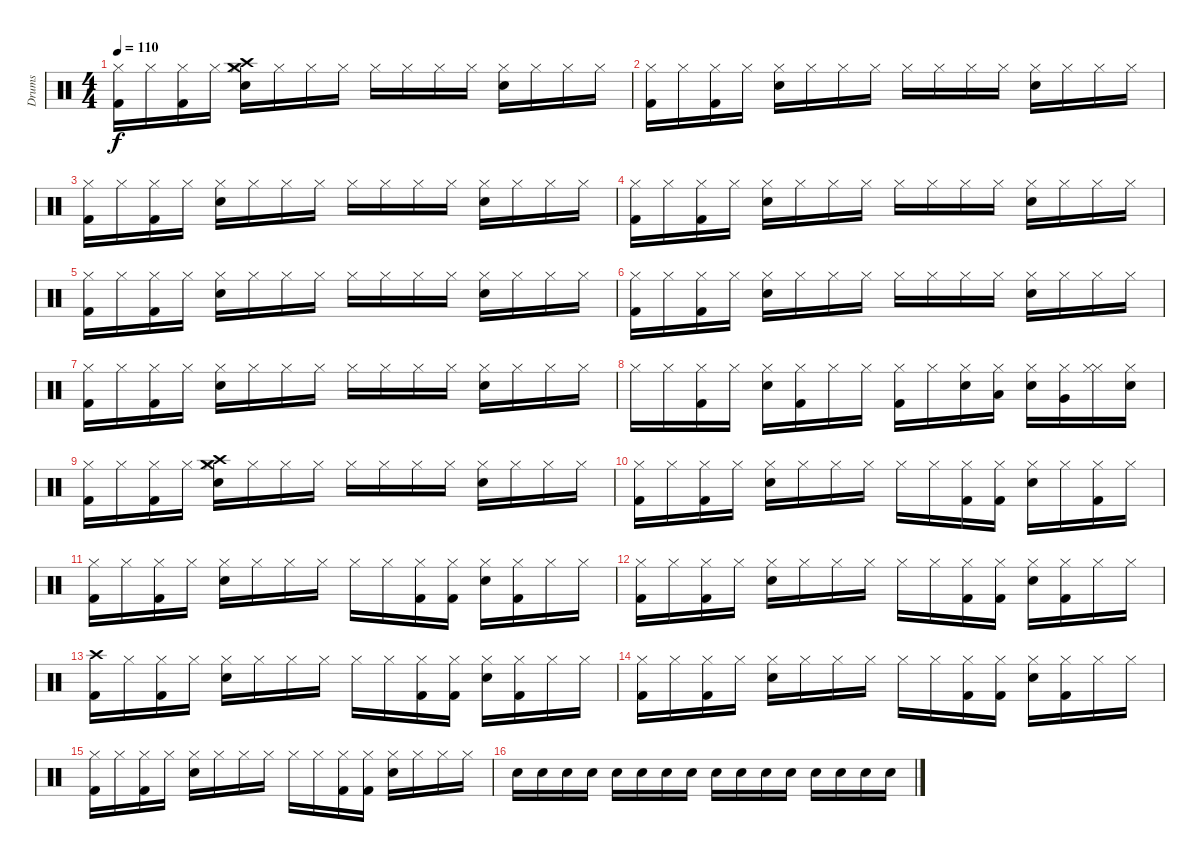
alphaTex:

\track ("Drums" "Drums") {instrument percussion}
\staff {score}
\articulation defaults
\ts (4 4)
\tempo 110
\clef neutral
\ks c
("Hi-Hat (closed)" "Kick (hit) 2").16{dy f} "Hi-Hat (closed)".16 ("Hi-Hat (closed)" "Kick (hit) 2").16 "Hi-Hat (closed)".16 ("Hi-Hat (closed)" "Crash medium (hit)" "Crash high (hit)" "Snare (hit) 2").16 "Hi-Hat (closed)".16 "Hi-Hat (closed)".16 "Hi-Hat (closed)".16 "Hi-Hat (closed)".16 "Hi-Hat (closed)".16 "Hi-Hat (closed)".16 "Hi-Hat (closed)".16 ("Hi-Hat (closed)" "Snare (hit) 2").16 "Hi-Hat (closed)".16 "Hi-Hat (closed)".16 "Hi-Hat (closed)".16 |
("Hi-Hat (closed)" "Kick (hit) 2").16 "Hi-Hat (closed)".16 ("Hi-Hat (closed)" "Kick (hit) 2").16 "Hi-Hat (closed)".16 ("Hi-Hat (closed)" "Snare (hit) 2").16 "Hi-Hat (closed)".16 "Hi-Hat (closed)".16 "Hi-Hat (closed)".16 "Hi-Hat (closed)".16 "Hi-Hat (closed)".16 "Hi-Hat (closed)".16 "Hi-Hat (closed)".16 ("Hi-Hat (closed)" "Snare (hit) 2").16 "Hi-Hat (closed)".16 "Hi-Hat (closed)".16 "Hi-Hat (closed)".16 |
("Hi-Hat (closed)" "Kick (hit) 2").16 "Hi-Hat (closed)".16 ("Hi-Hat (closed)" "Kick (hit) 2").16 "Hi-Hat (closed)".16 ("Hi-Hat (closed)" "Snare (hit) 2").16 "Hi-Hat (closed)".16 "Hi-Hat (closed)".16 "Hi-Hat (closed)".16 "Hi-Hat (closed)".16 "Hi-Hat (closed)".16 "Hi-Hat (closed)".16 "Hi-Hat (closed)".16 ("Hi-Hat (closed)" "Snare (hit) 2").16 "Hi-Hat (closed)".16 "Hi-Hat (closed)".16 "Hi-Hat (closed)".16 |
("Hi-Hat (closed)" "Kick (hit) 2").16 "Hi-Hat (closed)".16 ("Hi-Hat (closed)" "Kick (hit) 2").16 "Hi-Hat (closed)".16 ("Hi-Hat (closed)" "Snare (hit) 2").16 "Hi-Hat (closed)".16 "Hi-Hat (closed)".16 "Hi-Hat (closed)".16 "Hi-Hat (closed)".16 "Hi-Hat (closed)".16 "Hi-Hat (closed)".16 "Hi-Hat (closed)".16 ("Hi-Hat (closed)" "Snare (hit) 2").16 "Hi-Hat (closed)".16 "Hi-Hat (closed)".16 "Hi-Hat (closed)".16 |
("Hi-Hat (closed)" "Kick (hit) 2").16 "Hi-Hat (closed)".16 ("Hi-Hat (closed)" "Kick (hit) 2").16 "Hi-Hat (closed)".16 ("Hi-Hat (closed)" "Snare (hit) 2").16 "Hi-Hat (closed)".16 "Hi-Hat (closed)".16 "Hi-Hat (closed)".16 "Hi-Hat (closed)".16 "Hi-Hat (closed)".16 "Hi-Hat (closed)".16 "Hi-Hat (closed)".16 ("Hi-Hat (closed)" "Snare (hit) 2").16 "Hi-Hat (closed)".16 "Hi-Hat (closed)".16 "Hi-Hat (closed)".16 |
("Hi-Hat (closed)" "Kick (hit) 2").16 "Hi-Hat (closed)".16 ("Hi-Hat (closed)" "Kick (hit) 2").16 "Hi-Hat (closed)".16 ("Hi-Hat (closed)" "Snare (hit) 2").16 "Hi-Hat (closed)".16 "Hi-Hat (closed)".16 "Hi-Hat (closed)".16 "Hi-Hat (closed)".16 "Hi-Hat (closed)".16 "Hi-Hat (closed)".16 "Hi-Hat (closed)".16 ("Hi-Hat (closed)" "Snare (hit) 2").16 "Hi-Hat (closed)".16 "Hi-Hat (closed)".16 "Hi-Hat (closed)".16 |
("Hi-Hat (closed)" "Kick (hit) 2").16 "Hi-Hat (closed)".16 ("Hi-Hat (closed)" "Kick (hit) 2").16 "Hi-Hat (closed)".16 ("Hi-Hat (closed)" "Snare (hit) 2").16 "Hi-Hat (closed)".16 "Hi-Hat (closed)".16 "Hi-Hat (closed)".16 "Hi-Hat (closed)".16 "Hi-Hat (closed)".16 "Hi-Hat (closed)".16 "Hi-Hat (closed)".16 ("Hi-Hat (closed)" "Snare (hit) 2").16 "Hi-Hat (closed)".16 "Hi-Hat (closed)".16 "Hi-Hat (closed)".16 |
"Hi-Hat (closed)".16 "Hi-Hat (closed)".16 ("Hi-Hat (closed)" "Kick (hit) 2").16 "Hi-Hat (closed)".16 ("Hi-Hat (closed)" "Snare (hit) 2").16 ("Hi-Hat (closed)" "Kick (hit) 2").16 "Hi-Hat (closed)".16 "Hi-Hat (closed)".16 ("Hi-Hat (closed)" "Kick (hit) 2").16 "Hi-Hat (closed)".16 ("Hi-Hat (closed)" "Snare (hit) 2").16 ("Hi-Hat (closed)" "Low Tom (hit)").16 ("Hi-Hat (closed)" "Snare (hit) 2").16 ("Hi-Hat (closed)" "Very Low Tom (hit)").16 ("Hi-Hat (closed)" "Hi-Hat (closed)").16 ("Hi-Hat (closed)" "Snare (hit) 2").16 |
("Hi-Hat (closed)" "Kick (hit) 2").16 "Hi-Hat (closed)".16 ("Hi-Hat (closed)" "Kick (hit) 2").16 "Hi-Hat (closed)".16 ("Hi-Hat (closed)" "Crash medium (hit)" "Crash high (hit)" "Snare (hit) 2").16 "Hi-Hat (closed)".16 "Hi-Hat (closed)".16 "Hi-Hat (closed)".16 "Hi-Hat (closed)".16 "Hi-Hat (closed)".16 "Hi-Hat (closed)".16 "Hi-Hat (closed)".16 ("Hi-Hat (closed)" "Snare (hit) 2").16 "Hi-Hat (closed)".16 "Hi-Hat (closed)".16 "Hi-Hat (closed)".16 |
("Hi-Hat (closed)" "Kick (hit) 2").16 "Hi-Hat (closed)".16 ("Hi-Hat (closed)" "Kick (hit) 2").16 "Hi-Hat (closed)".16 ("Hi-Hat (closed)" "Snare (hit) 2").16 "Hi-Hat (closed)".16 "Hi-Hat (closed)".16 "Hi-Hat (closed)".16 "Hi-Hat (closed)".16 "Hi-Hat (closed)".16 ("Hi-Hat (closed)" "Kick (hit) 2").16 ("Hi-Hat (closed)" "Kick (hit) 2").16 ("Hi-Hat (closed)" "Snare (hit) 2").16 "Hi-Hat (closed)".16 ("Hi-Hat (closed)" "Kick (hit) 2").16 "Hi-Hat (closed)".16 |
("Hi-Hat (closed)" "Kick (hit) 2").16 "Hi-Hat (closed)".16 ("Hi-Hat (closed)" "Kick (hit) 2").16 "Hi-Hat (closed)".16 ("Hi-Hat (closed)" "Snare (hit) 2").16 "Hi-Hat (closed)".16 "Hi-Hat (closed)".16 "Hi-Hat (closed)".16 "Hi-Hat (closed)".16 "Hi-Hat (closed)".16 ("Hi-Hat (closed)" "Kick (hit) 2").16 ("Hi-Hat (closed)" "Kick (hit) 2").16 ("Hi-Hat (closed)" "Snare (hit) 2").16 ("Hi-Hat (closed)" "Kick (hit) 2").16 "Hi-Hat (closed)".16 "Hi-Hat (closed)".16 |
("Hi-Hat (closed)" "Kick (hit) 2").16 "Hi-Hat (closed)".16 ("Hi-Hat (closed)" "Kick (hit) 2").16 "Hi-Hat (closed)".16 ("Hi-Hat (closed)" "Snare (hit) 2").16 "Hi-Hat (closed)".16 "Hi-Hat (closed)".16 "Hi-Hat (closed)".16 "Hi-Hat (closed)".16 "Hi-Hat (closed)".16 ("Hi-Hat (closed)" "Kick (hit) 2").16 ("Hi-Hat (closed)" "Kick (hit) 2").16 ("Hi-Hat (closed)" "Snare (hit) 2").16 ("Hi-Hat (closed)" "Kick (hit) 2").16 "Hi-Hat (closed)".16 "Hi-Hat (closed)".16 |
("Crash high (hit)" "Kick (hit) 2").16 "Hi-Hat (closed)".16 ("Hi-Hat (closed)" "Kick (hit) 2").16 "Hi-Hat (closed)".16 ("Hi-Hat (closed)" "Snare (hit) 2").16 "Hi-Hat (closed)".16 "Hi-Hat (closed)".16 "Hi-Hat (closed)".16 "Hi-Hat (closed)".16 "Hi-Hat (closed)".16 ("Hi-Hat (closed)" "Kick (hit) 2").16 ("Hi-Hat (closed)" "Kick (hit) 2").16 ("Hi-Hat (closed)" "Snare (hit) 2").16 ("Hi-Hat (closed)" "Kick (hit) 2").16 "Hi-Hat (closed)".16 "Hi-Hat (closed)".16 |
("Hi-Hat (closed)" "Kick (hit) 2").16 "Hi-Hat (closed)".16 ("Hi-Hat (closed)" "Kick (hit) 2").16 "Hi-Hat (closed)".16 ("Hi-Hat (closed)" "Snare (hit) 2").16 "Hi-Hat (closed)".16 "Hi-Hat (closed)".16 "Hi-Hat (closed)".16 "Hi-Hat (closed)".16 "Hi-Hat (closed)".16 ("Hi-Hat (closed)" "Kick (hit) 2").16 ("Hi-Hat (closed)" "Kick (hit) 2").16 ("Hi-Hat (closed)" "Snare (hit) 2").16 ("Hi-Hat (closed)" "Kick (hit) 2").16 "Hi-Hat (closed)".16 "Hi-Hat (closed)".16 |
("Hi-Hat (closed)" "Kick (hit) 2").16 "Hi-Hat (closed)".16 ("Hi-Hat (closed)" "Kick (hit) 2").16 "Hi-Hat (closed)".16 ("Hi-Hat (closed)" "Snare (hit) 2").16 "Hi-Hat (closed)".16 "Hi-Hat (closed)".16 "Hi-Hat (closed)".16 "Hi-Hat (closed)".16 "Hi-Hat (closed)".16 ("Hi-Hat (closed)" "Kick (hit) 2").16 ("Hi-Hat (closed)" "Kick (hit) 2").16 ("Hi-Hat (closed)" "Snare (hit) 2").16 "Hi-Hat (closed)".16 "Hi-Hat (closed)".16 "Hi-Hat (closed)".16 |
"Snare (hit) 2".16 "Snare (hit) 2".16 "Snare (hit) 2".16 "Snare (hit) 2".16 "Snare (hit) 2".16 "Snare (hit) 2".16 "Snare (hit) 2".16 "Snare (hit) 2".16 "Snare (hit) 2".16 "Snare (hit) 2".16 "Snare (hit) 2".16 "Snare (hit) 2".16 "Snare (hit) 2".16 "Snare (hit) 2".16 "Snare (hit) 2".16 "Snare (hit) 2".16
